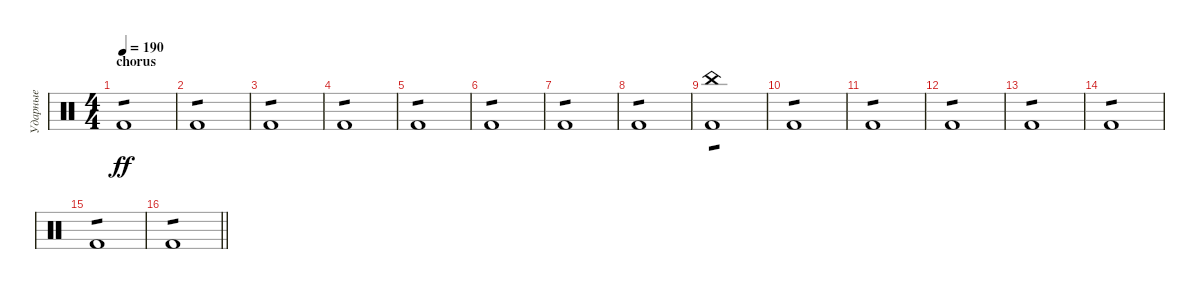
\track ("Ударные" "Ударные") {instrument percussion}
\staff {score}
\articulation defaults
\ts (4 4)
\section ("" "chorus")
\tempo 190
\clef neutral
\ks c "Kick (hit) 2".1{tp 1 dy ff}
|
"Kick (hit) 2".1{tp 1} |
"Kick (hit) 2".1{tp 1} |
"Kick (hit) 2".1{tp 1} |
"Kick (hit) 2".1{tp 1} |
"Kick (hit) 2".1{tp 1} |
"Kick (hit) 2".1{tp 1} |
"Kick (hit) 2".1{tp 1} |
("Kick (hit) 2" "China (hit)").1{tp 1} |
"Kick (hit) 2".1{tp 1} |
"Kick (hit) 2".1{tp 1} |
"Kick (hit) 2".1{tp 1} |
"Kick (hit) 2".1{tp 1} |
"Kick (hit) 2".1{tp 1} |
"Kick (hit) 2".1{tp 1} |
\barLineRight lightlight "Kick (hit) 2".1{tp 1}
